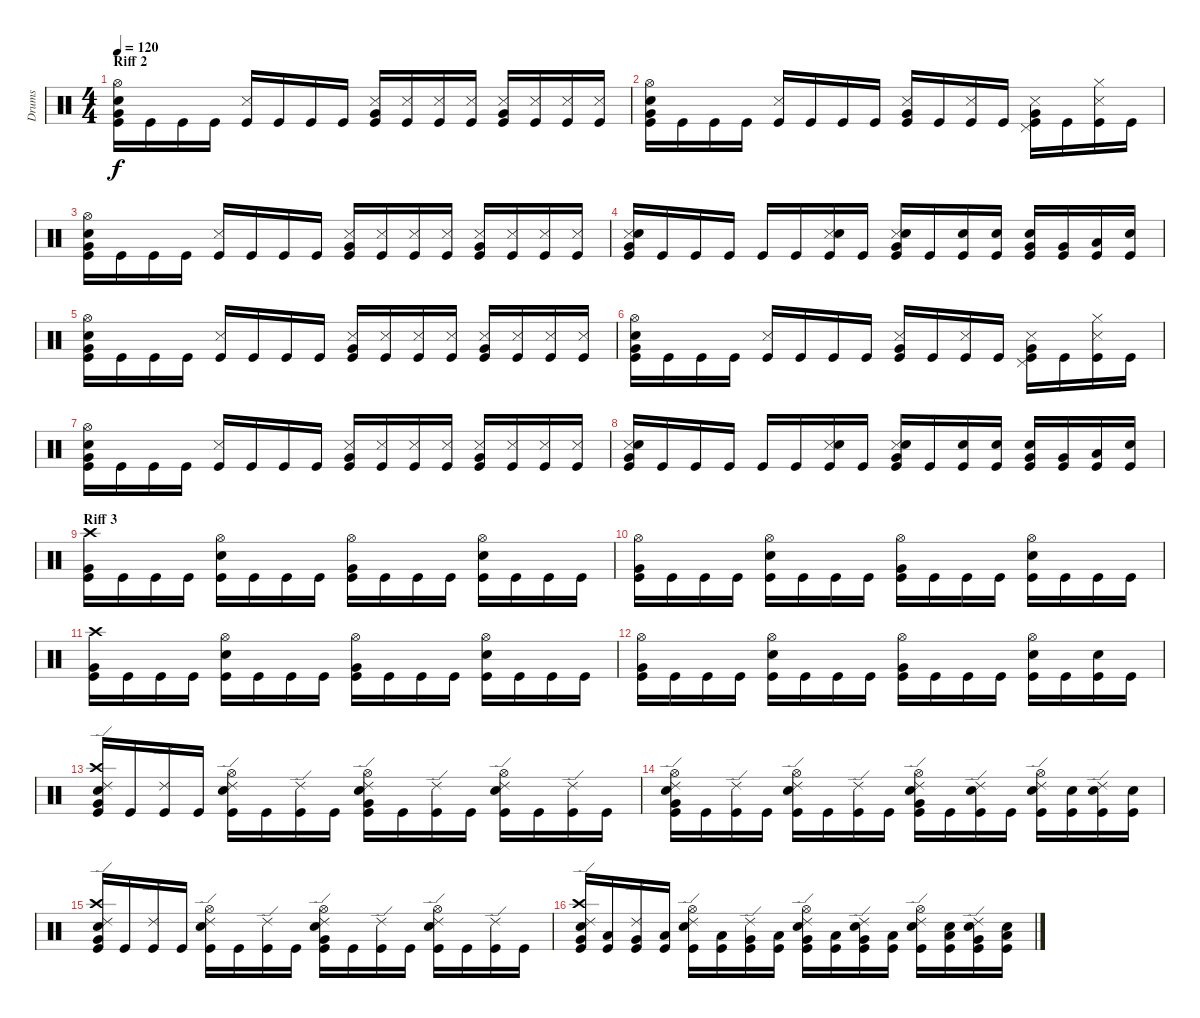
\track ("Drums" "Drums") {instrument percussion}
\staff {score}
\articulation defaults
\ts (4 4)
\section ("" "Riff 2")
\tempo 120
\clef neutral
\ks c
("Hi-Hat (open)" "Snare (hit) 2" "Very Low Tom (hit)" "Kick (hit)").16{dy f} "Kick (hit)".16 "Kick (hit)".16 "Kick (hit)".16 ("Snare (side stick) 3" "Kick (hit)").16 "Kick (hit)".16 "Kick (hit)".16 "Kick (hit)".16 ("Snare (side stick) 3" "Very Low Tom (hit)" "Kick (hit)").16 ("Snare (side stick) 3" "Kick (hit)").16 ("Snare (side stick) 3" "Kick (hit)").16 ("Snare (side stick) 3" "Kick (hit)").16 ("Snare (side stick) 3" "Very Low Tom (hit)" "Kick (hit)").16 ("Snare (side stick) 3" "Kick (hit)").16 ("Snare (side stick) 3" "Kick (hit)").16 ("Snare (side stick) 3" "Kick (hit)").16 |
("Hi-Hat (open)" "Snare (hit) 2" "Very Low Tom (hit)" "Kick (hit)").16 "Kick (hit)".16 "Kick (hit)".16 "Kick (hit)".16 ("Snare (side stick) 3" "Kick (hit)").16 "Kick (hit)".16 "Kick (hit)".16 "Kick (hit)".16 ("Snare (side stick) 3" "Very Low Tom (hit)" "Kick (hit)").16 "Kick (hit)".16 ("Snare (side stick) 3" "Kick (hit)").16 "Kick (hit)".16 ("Pedal Hi-Hat (hit)" "Snare (side stick) 3" "Very Low Tom (hit)" "Kick (hit)").16 "Kick (hit)".16 ("Hi-Hat (closed)" "Snare (side stick) 3" "Kick (hit)").16 "Kick (hit)".16 |
("Hi-Hat (open)" "Snare (hit) 2" "Very Low Tom (hit)" "Kick (hit)").16 "Kick (hit)".16 "Kick (hit)".16 "Kick (hit)".16 ("Snare (side stick) 3" "Kick (hit)").16 "Kick (hit)".16 "Kick (hit)".16 "Kick (hit)".16 ("Snare (side stick) 3" "Very Low Tom (hit)" "Kick (hit)").16 ("Snare (side stick) 3" "Kick (hit)").16 ("Snare (side stick) 3" "Kick (hit)").16 ("Snare (side stick) 3" "Kick (hit)").16 ("Snare (side stick) 3" "Very Low Tom (hit)" "Kick (hit)").16 ("Snare (side stick) 3" "Kick (hit)").16 ("Snare (side stick) 3" "Kick (hit)").16 ("Snare (side stick) 3" "Kick (hit)").16 |
("Snare (side stick) 3" "Snare (hit) 2" "Very Low Tom (hit)" "Kick (hit)").16 "Kick (hit)".16 "Kick (hit)".16 "Kick (hit)".16 "Kick (hit)".16 "Kick (hit)".16 ("Snare (side stick) 3" "Snare (hit) 2" "Kick (hit)").16 "Kick (hit)".16 ("Snare (side stick) 3" "Snare (hit) 2" "Very Low Tom (hit)" "Kick (hit)").16 "Kick (hit)".16 ("Snare (hit) 2" "Kick (hit)").16 ("Snare (hit) 2" "Kick (hit)").16 ("Snare (hit) 2" "Very Low Tom (hit)" "Kick (hit)").16 ("Very Low Tom (hit)" "Kick (hit)").16 ("Low Floor Tom (hit)" "Kick (hit)").16 ("Snare (hit) 2" "Kick (hit)").16 |
("Hi-Hat (open)" "Snare (hit) 2" "Very Low Tom (hit)" "Kick (hit)").16 "Kick (hit)".16 "Kick (hit)".16 "Kick (hit)".16 ("Snare (side stick) 3" "Kick (hit)").16 "Kick (hit)".16 "Kick (hit)".16 "Kick (hit)".16 ("Snare (side stick) 3" "Very Low Tom (hit)" "Kick (hit)").16 ("Snare (side stick) 3" "Kick (hit)").16 ("Snare (side stick) 3" "Kick (hit)").16 ("Snare (side stick) 3" "Kick (hit)").16 ("Snare (side stick) 3" "Very Low Tom (hit)" "Kick (hit)").16 ("Snare (side stick) 3" "Kick (hit)").16 ("Snare (side stick) 3" "Kick (hit)").16 ("Snare (side stick) 3" "Kick (hit)").16 |
("Hi-Hat (open)" "Snare (hit) 2" "Very Low Tom (hit)" "Kick (hit)").16 "Kick (hit)".16 "Kick (hit)".16 "Kick (hit)".16 ("Snare (side stick) 3" "Kick (hit)").16 "Kick (hit)".16 "Kick (hit)".16 "Kick (hit)".16 ("Snare (side stick) 3" "Very Low Tom (hit)" "Kick (hit)").16 "Kick (hit)".16 ("Snare (side stick) 3" "Kick (hit)").16 "Kick (hit)".16 ("Pedal Hi-Hat (hit)" "Snare (side stick) 3" "Very Low Tom (hit)" "Kick (hit)").16 "Kick (hit)".16 ("Hi-Hat (closed)" "Snare (side stick) 3" "Kick (hit)").16 "Kick (hit)".16 |
("Hi-Hat (open)" "Snare (hit) 2" "Very Low Tom (hit)" "Kick (hit)").16 "Kick (hit)".16 "Kick (hit)".16 "Kick (hit)".16 ("Snare (side stick) 3" "Kick (hit)").16 "Kick (hit)".16 "Kick (hit)".16 "Kick (hit)".16 ("Snare (side stick) 3" "Very Low Tom (hit)" "Kick (hit)").16 ("Snare (side stick) 3" "Kick (hit)").16 ("Snare (side stick) 3" "Kick (hit)").16 ("Snare (side stick) 3" "Kick (hit)").16 ("Snare (side stick) 3" "Very Low Tom (hit)" "Kick (hit)").16 ("Snare (side stick) 3" "Kick (hit)").16 ("Snare (side stick) 3" "Kick (hit)").16 ("Snare (side stick) 3" "Kick (hit)").16 |
("Snare (side stick) 3" "Snare (hit) 2" "Very Low Tom (hit)" "Kick (hit)").16 "Kick (hit)".16 "Kick (hit)".16 "Kick (hit)".16 "Kick (hit)".16 "Kick (hit)".16 ("Snare (side stick) 3" "Snare (hit) 2" "Kick (hit)").16 "Kick (hit)".16 ("Snare (side stick) 3" "Snare (hit) 2" "Very Low Tom (hit)" "Kick (hit)").16 "Kick (hit)".16 ("Snare (hit) 2" "Kick (hit)").16 ("Snare (hit) 2" "Kick (hit)").16 ("Snare (hit) 2" "Very Low Tom (hit)" "Kick (hit)").16 ("Very Low Tom (hit)" "Kick (hit)").16 ("Low Floor Tom (hit)" "Kick (hit)").16 ("Snare (hit) 2" "Kick (hit)").16 |
\section ("" "Riff 3")
("Crash high (hit)" "Very Low Tom (hit)" "Kick (hit)").16 "Kick (hit)".16 "Kick (hit)".16 "Kick (hit)".16 ("Hi-Hat (open)" "Snare (hit) 2" "Kick (hit)").16 "Kick (hit)".16 "Kick (hit)".16 "Kick (hit)".16 ("Hi-Hat (open)" "Very Low Tom (hit)" "Kick (hit)").16 "Kick (hit)".16 "Kick (hit)".16 "Kick (hit)".16 ("Hi-Hat (open)" "Snare (hit) 2" "Kick (hit)").16 "Kick (hit)".16 "Kick (hit)".16 "Kick (hit)".16 |
("Hi-Hat (open)" "Very Low Tom (hit)" "Kick (hit)").16 "Kick (hit)".16 "Kick (hit)".16 "Kick (hit)".16 ("Hi-Hat (open)" "Snare (hit) 2" "Kick (hit)").16 "Kick (hit)".16 "Kick (hit)".16 "Kick (hit)".16 ("Hi-Hat (open)" "Very Low Tom (hit)" "Kick (hit)").16 "Kick (hit)".16 "Kick (hit)".16 "Kick (hit)".16 ("Hi-Hat (open)" "Snare (hit) 2" "Kick (hit)").16 "Kick (hit)".16 "Kick (hit)".16 "Kick (hit)".16 |
("Crash high (hit)" "Very Low Tom (hit)" "Kick (hit)").16 "Kick (hit)".16 "Kick (hit)".16 "Kick (hit)".16 ("Hi-Hat (open)" "Snare (hit) 2" "Kick (hit)").16 "Kick (hit)".16 "Kick (hit)".16 "Kick (hit)".16 ("Hi-Hat (open)" "Very Low Tom (hit)" "Kick (hit)").16 "Kick (hit)".16 "Kick (hit)".16 "Kick (hit)".16 ("Hi-Hat (open)" "Snare (hit) 2" "Kick (hit)").16 "Kick (hit)".16 "Kick (hit)".16 "Kick (hit)".16 |
("Hi-Hat (open)" "Very Low Tom (hit)" "Kick (hit)").16 "Kick (hit)".16 "Kick (hit)".16 "Kick (hit)".16 ("Hi-Hat (open)" "Snare (hit) 2" "Kick (hit)").16 "Kick (hit)".16 "Kick (hit)".16 "Kick (hit)".16 ("Hi-Hat (open)" "Very Low Tom (hit)" "Kick (hit)").16 "Kick (hit)".16 "Kick (hit)".16 "Kick (hit)".16 ("Hi-Hat (open)" "Snare (hit) 2" "Kick (hit)").16 "Kick (hit)".16 ("Snare (hit) 2" "Kick (hit)").16 "Kick (hit)".16 |
("Crash high (hit)" "Ride (edge) 2" "Snare (hit) 2" "Very Low Tom (hit)" "Kick (hit)").16 "Kick (hit)".16 ("Ride (edge) 2" "Kick (hit)").16 "Kick (hit)".16 ("Hi-Hat (open)" "Ride (edge) 2" "Snare (hit) 2" "Kick (hit)").16 "Kick (hit)".16 ("Ride (edge) 2" "Kick (hit)").16 "Kick (hit)".16 ("Hi-Hat (open)" "Ride (edge) 2" "Snare (hit) 2" "Very Low Tom (hit)" "Kick (hit)").16 "Kick (hit)".16 ("Ride (edge) 2" "Kick (hit)").16 "Kick (hit)".16 ("Hi-Hat (open)" "Ride (edge) 2" "Snare (hit) 2" "Kick (hit)").16 "Kick (hit)".16 ("Ride (edge) 2" "Kick (hit)").16 "Kick (hit)".16 |
("Hi-Hat (open)" "Ride (edge) 2" "Snare (hit) 2" "Very Low Tom (hit)" "Kick (hit)").16 "Kick (hit)".16 ("Ride (edge) 2" "Kick (hit)").16 "Kick (hit)".16 ("Hi-Hat (open)" "Ride (edge) 2" "Snare (hit) 2" "Kick (hit)").16 "Kick (hit)".16 ("Ride (edge) 2" "Kick (hit)").16 "Kick (hit)".16 ("Hi-Hat (open)" "Ride (edge) 2" "Snare (hit) 2" "Very Low Tom (hit)" "Kick (hit)").16 "Kick (hit)".16 ("Ride (edge) 2" "Snare (hit) 2" "Kick (hit)").16 "Kick (hit)".16 ("Hi-Hat (open)" "Ride (edge) 2" "Snare (hit) 2" "Kick (hit)").16 ("Snare (hit) 2" "Kick (hit)").16 ("Ride (edge) 2" "Snare (hit) 2" "Kick (hit)").16 ("Snare (hit) 2" "Kick (hit)").16 |
("Crash high (hit)" "Ride (edge) 2" "Snare (hit) 2" "Very Low Tom (hit)" "Kick (hit)").16 "Kick (hit)".16 ("Ride (edge) 2" "Kick (hit)").16 "Kick (hit)".16 ("Hi-Hat (open)" "Ride (edge) 2" "Snare (hit) 2" "Kick (hit)").16 "Kick (hit)".16 ("Ride (edge) 2" "Kick (hit)").16 "Kick (hit)".16 ("Hi-Hat (open)" "Ride (edge) 2" "Snare (hit) 2" "Very Low Tom (hit)" "Kick (hit)").16 "Kick (hit)".16 ("Ride (edge) 2" "Kick (hit)").16 "Kick (hit)".16 ("Hi-Hat (open)" "Ride (edge) 2" "Snare (hit) 2" "Kick (hit)").16 "Kick (hit)".16 ("Ride (edge) 2" "Kick (hit)").16 "Kick (hit)".16 |
("Crash high (hit)" "Ride (edge) 2" "Snare (hit) 2" "Very Low Tom (hit)" "Kick (hit)").16 ("Low Tom (hit)" "Kick (hit)").16 ("Ride (edge) 2" "Very Low Tom (hit)" "Kick (hit)").16 ("Low Floor Tom (hit)" "Kick (hit)").16 ("Hi-Hat (open)" "Ride (edge) 2" "Snare (hit) 2" "Kick (hit)").16 ("Low Tom (hit)" "Kick (hit)").16 ("Ride (edge) 2" "Very Low Tom (hit)" "Kick (hit)").16 ("Low Floor Tom (hit)" "Kick (hit)").16 ("Hi-Hat (open)" "Ride (edge) 2" "Snare (hit) 2" "Very Low Tom (hit)" "Kick (hit)").16 ("Low Tom (hit)" "Kick (hit)").16 ("Ride (edge) 2" "Snare (hit) 2" "Very Low Tom (hit)" "Kick (hit)").16 ("Low Floor Tom (hit)" "Kick (hit)").16 ("Hi-Hat (open)" "Ride (edge) 2" "Snare (hit) 2" "Kick (hit)").16 ("Snare (hit) 2" "Low Tom (hit)" "Kick (hit)").16 ("Ride (edge) 2" "Snare (hit) 2" "Very Low Tom (hit)" "Kick (hit)").16 ("Snare (hit) 2" "Low Floor Tom (hit)" "Kick (hit)").16
